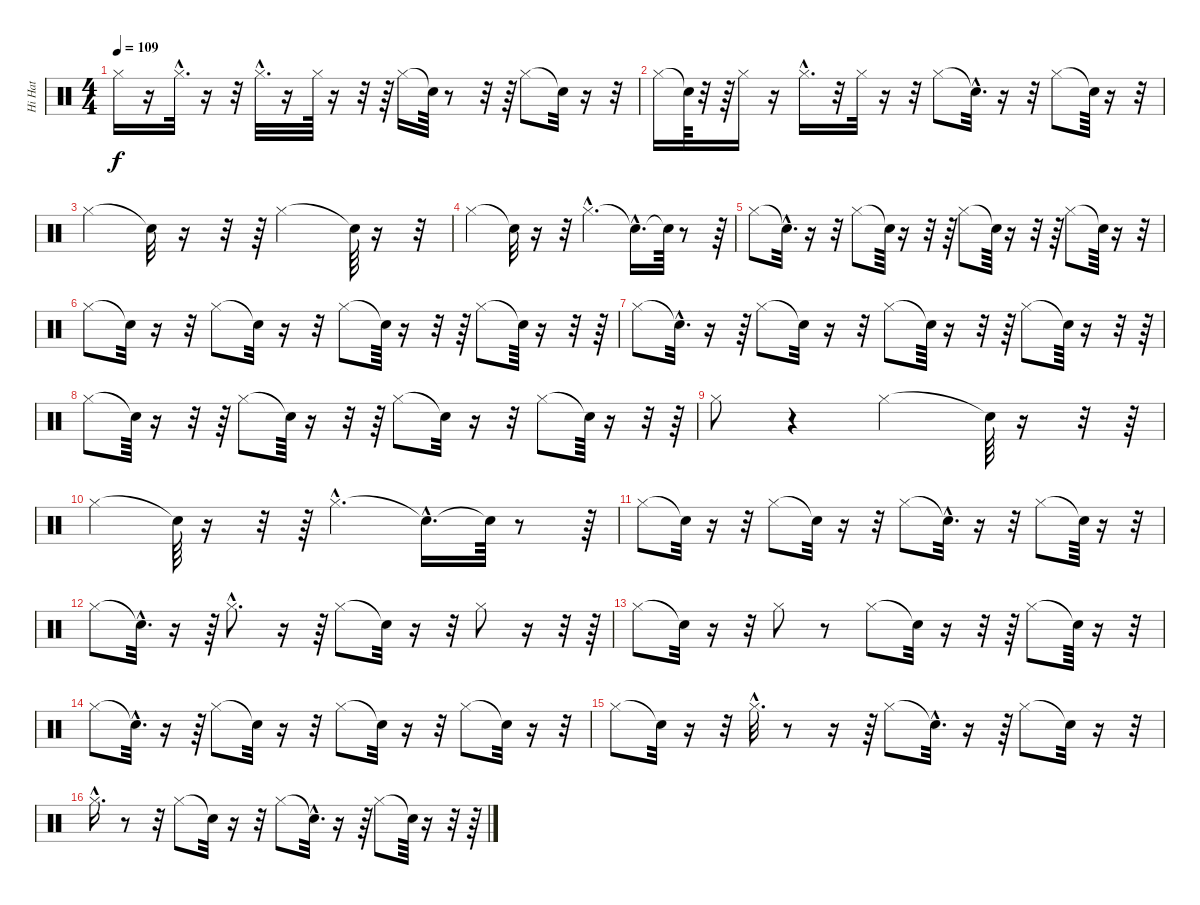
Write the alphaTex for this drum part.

\track ("Hi Hat" "Hi Hat") {instrument percussion}
\staff {score}
\articulation defaults
\ts (4 4)
\tempo 109
\clef neutral
\ks c "Hi-Hat (closed)".16{dy f}
r.16 "Hi-Hat (closed)"{hac}.32{d} r.16 r.32 "Hi-Hat (closed)"{hac}.32{d} r.16 "Hi-Hat (closed)".64 r.16 r.32 r.64 "Hi-Hat (closed)".16 "Snare (hit)"{t}.64 r.8 r.32 r.64 "Hi-Hat (closed)".8 "Snare (hit)"{t}.32 r.16 r.32 |
"Hi-Hat (closed)".16 "Snare (hit)"{t}.64 r.32 r.64 "Hi-Hat (closed)".16 r.16 "Hi-Hat (closed)"{hac}.16{d} r.32 "Hi-Hat (closed)".32 r.16 r.32 "Hi-Hat (closed)".8 "Snare (hit)"{hac t}.32{d} r.16 r.32 "Hi-Hat (closed)".8 "Snare (hit)"{t}.64 r.16 r.32 |
"Hi-Hat (closed)".4 "Snare (hit)"{t}.32 r.16 r.32 r.64 "Hi-Hat (closed)".2 "Snare (hit)"{t}.64 r.16 r.32 |
"Hi-Hat (closed)".4 "Snare (hit)"{t}.32 r.16 r.32 "Hi-Hat (closed)"{hac}.4{d} "Snare (hit)"{hac t}.16{d} "Snare (hit)"{t}.64 r.8 r.64 |
"Hi-Hat (closed)".8 "Snare (hit)"{hac t}.32{d} r.16 r.32 "Hi-Hat (closed)".8 "Snare (hit)"{t}.64 r.16 r.32 r.64 "Hi-Hat (closed)".8 "Snare (hit)"{t}.64 r.16 r.32 r.64 "Hi-Hat (closed)".8 "Snare (hit)"{t}.64 r.16 r.32 |
"Hi-Hat (closed)".8 "Snare (hit)"{t}.32 r.16 r.32 "Hi-Hat (closed)".8 "Snare (hit)"{t}.32 r.16 r.32 "Hi-Hat (closed)".8 "Snare (hit)"{t}.64 r.16 r.32 r.64 "Hi-Hat (closed)".8 "Snare (hit)"{t}.64 r.16 r.32 r.64 |
"Hi-Hat (closed)".8 "Snare (hit)"{hac t}.32{d} r.16 r.64 "Hi-Hat (closed)".8 "Snare (hit)"{t}.32 r.16 r.32 "Hi-Hat (closed)".8 "Snare (hit)"{t}.64 r.16 r.32 r.64 "Hi-Hat (closed)".8 "Snare (hit)"{t}.64 r.16 r.32 r.64 |
"Hi-Hat (closed)".8 "Snare (hit)"{t}.64 r.16 r.32 r.64 "Hi-Hat (closed)".8 "Snare (hit)"{t}.64 r.16 r.32 r.64 "Hi-Hat (closed)".8 "Snare (hit)"{t}.32 r.16 r.32 "Hi-Hat (closed)".8 "Snare (hit)"{t}.64 r.16 r.32 r.64 |
"Hi-Hat (closed)".8 r.4 "Hi-Hat (closed)".2 "Snare (hit)"{t}.64 r.16 r.32 r.64 |
"Hi-Hat (closed)".4 "Snare (hit)"{t}.64 r.16 r.32 r.64 "Hi-Hat (closed)"{hac}.4{d} "Snare (hit)"{hac t}.16{d} "Snare (hit)"{t}.64 r.8 r.64 |
"Hi-Hat (closed)".8 "Snare (hit)"{t}.32 r.16 r.32 "Hi-Hat (closed)".8 "Snare (hit)"{t}.32 r.16 r.32 "Hi-Hat (closed)".8 "Snare (hit)"{hac t}.32{d} r.16 r.32 "Hi-Hat (closed)".8 "Snare (hit)"{t}.64 r.16 r.32 |
"Hi-Hat (closed)".8 "Snare (hit)"{hac t}.32{d} r.16 r.64 "Hi-Hat (closed)"{hac}.8{d} r.16 r.64 "Hi-Hat (closed)".8 "Snare (hit)"{t}.32 r.16 r.32 "Hi-Hat (closed)".8 r.16 r.32 r.64 |
"Hi-Hat (closed)".8 "Snare (hit)"{t}.32 r.16 r.32 "Hi-Hat (closed)".8 r.8 "Hi-Hat (closed)".8 "Snare (hit)"{t}.32 r.16 r.32 r.64 "Hi-Hat (closed)".8 "Snare (hit)"{t}.64 r.16 r.32 |
"Hi-Hat (closed)".8 "Snare (hit)"{hac t}.32{d} r.16 r.64 "Hi-Hat (closed)".8 "Snare (hit)"{t}.32 r.16 r.32 "Hi-Hat (closed)".8 "Snare (hit)"{t}.32 r.16 r.32 "Hi-Hat (closed)".8 "Snare (hit)"{t}.32 r.16 r.32 |
"Hi-Hat (closed)".8 "Snare (hit)"{t}.32 r.16 r.32 "Hi-Hat (closed)"{hac}.32{d} r.8 r.16 r.64 "Hi-Hat (closed)".8 "Snare (hit)"{hac t}.32{d} r.16 r.64 "Hi-Hat (closed)".8 "Snare (hit)"{t}.32 r.16 r.32 |
"Hi-Hat (closed)"{hac}.16{d} r.8 r.32 "Hi-Hat (closed)".8 "Snare (hit)"{t}.32 r.16 r.32 "Hi-Hat (closed)".8 "Snare (hit)"{hac t}.32{d} r.16 r.64 "Hi-Hat (closed)".8 "Snare (hit)"{t}.64 r.16 r.32 r.64
